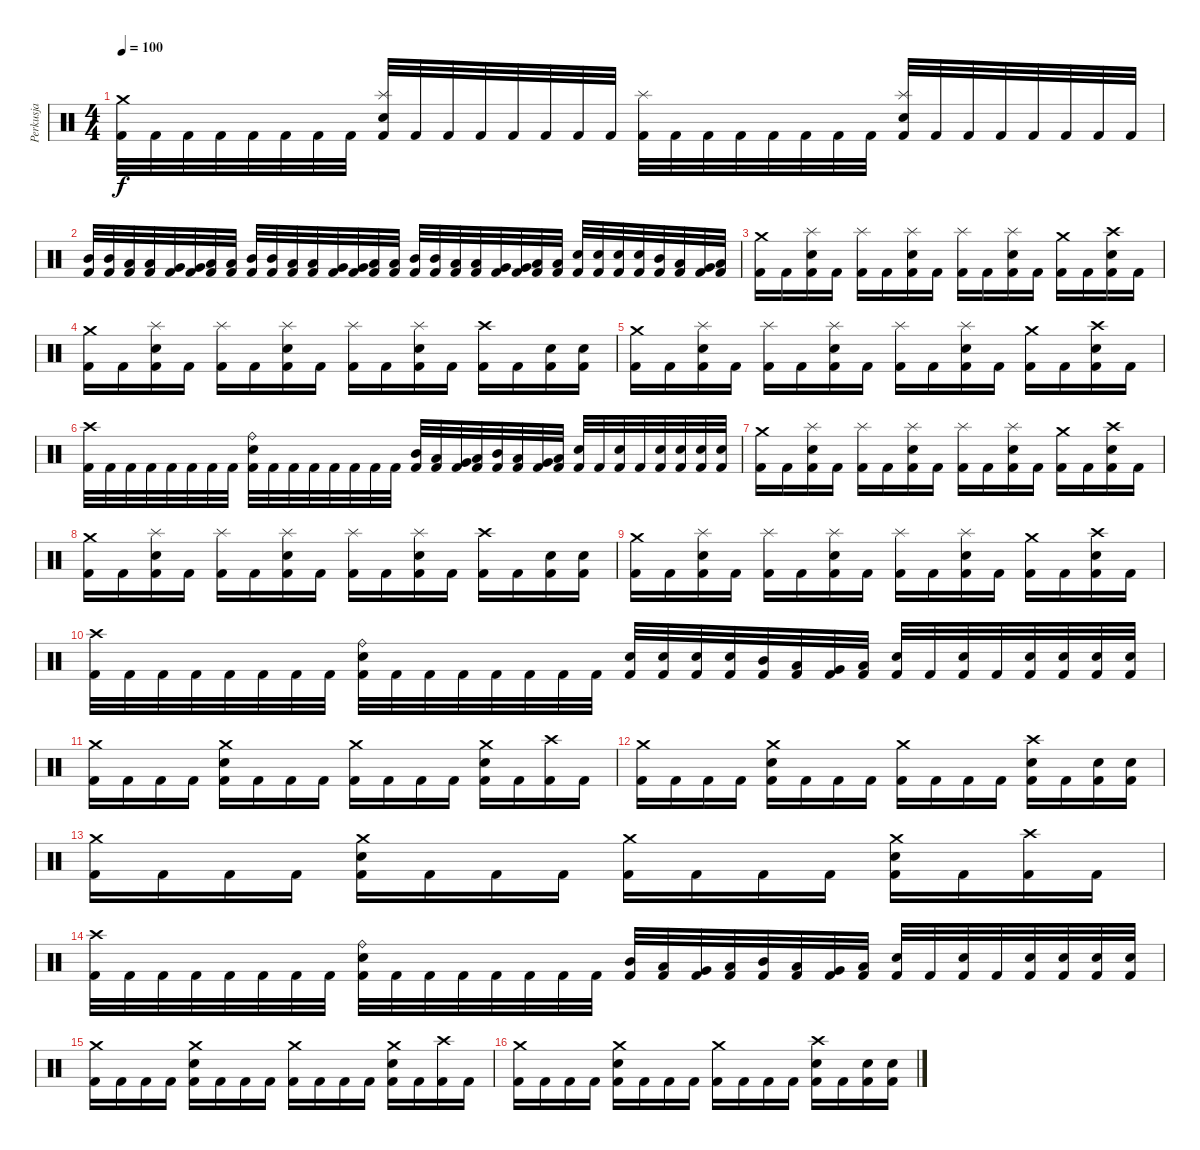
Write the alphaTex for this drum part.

\track ("Perkusja" "Perkusja") {instrument percussion}
\staff {score}
\articulation defaults
\ts (4 4)
\tempo 100
\clef neutral
\ks c
("Crash medium (hit)" "Kick (hit) 2").32{dy f} "Kick (hit) 2".32 "Kick (hit) 2".32 "Kick (hit) 2".32 "Kick (hit) 2".32 "Kick (hit) 2".32 "Kick (hit) 2".32 "Kick (hit) 2".32 ("Splash (hit)" "Electric Snare (hit)" "Kick (hit) 2").32 "Kick (hit) 2".32 "Kick (hit) 2".32 "Kick (hit) 2".32 "Kick (hit) 2".32 "Kick (hit) 2".32 "Kick (hit) 2".32 "Kick (hit) 2".32 ("Splash (hit)" "Kick (hit) 2").32 "Kick (hit) 2".32 "Kick (hit) 2".32 "Kick (hit) 2".32 "Kick (hit) 2".32 "Kick (hit) 2".32 "Kick (hit) 2".32 "Kick (hit) 2".32 ("Splash (hit)" "Electric Snare (hit)" "Kick (hit) 2").32 "Kick (hit) 2".32 "Kick (hit) 2".32 "Kick (hit) 2".32 "Kick (hit) 2".32 "Kick (hit) 2".32 "Kick (hit) 2".32 "Kick (hit) 2".32 |
("Mid Tom (hit)" "Kick (hit) 2").32 ("Mid Tom (hit)" "Kick (hit) 2").32 ("Low Tom (hit)" "Kick (hit) 2").32 ("Low Tom (hit)" "Kick (hit) 2").32 ("Very Low Tom (hit)" "Kick (hit) 2").32 ("Very Low Tom (hit)" "Kick (hit) 2").32 ("Low Floor Tom (hit)" "Kick (hit) 2").32 ("Low Floor Tom (hit)" "Kick (hit) 2").32 ("Mid Tom (hit)" "Kick (hit) 2").32 ("Mid Tom (hit)" "Kick (hit) 2").32 ("Low Tom (hit)" "Kick (hit) 2").32 ("Low Tom (hit)" "Kick (hit) 2").32 ("Very Low Tom (hit)" "Kick (hit) 2").32 ("Very Low Tom (hit)" "Kick (hit) 2").32 ("Low Floor Tom (hit)" "Kick (hit) 2").32 ("Low Floor Tom (hit)" "Kick (hit) 2").32 ("Mid Tom (hit)" "Kick (hit) 2").32 ("Mid Tom (hit)" "Kick (hit) 2").32 ("Low Tom (hit)" "Kick (hit) 2").32 ("Low Tom (hit)" "Kick (hit) 2").32 ("Very Low Tom (hit)" "Kick (hit) 2").32 ("Very Low Tom (hit)" "Kick (hit) 2").32 ("Low Floor Tom (hit)" "Kick (hit) 2").32 ("Low Floor Tom (hit)" "Kick (hit) 2").32 ("Electric Snare (hit)" "Kick (hit) 2").32 ("Electric Snare (hit)" "Kick (hit) 2").32 ("Electric Snare (hit)" "Kick (hit) 2").32 ("Electric Snare (hit)" "Kick (hit) 2").32 ("Mid Tom (hit)" "Kick (hit) 2").32 ("Low Tom (hit)" "Kick (hit) 2").32 ("Very Low Tom (hit)" "Kick (hit) 2").32 ("Low Floor Tom (hit)" "Kick (hit) 2").32 |
("Crash medium (hit)" "Kick (hit) 2").16 "Kick (hit) 2".16 ("Splash (hit)" "Electric Snare (hit)" "Kick (hit) 2").16 "Kick (hit) 2".16 ("Splash (hit)" "Kick (hit) 2").16 "Kick (hit) 2".16 ("Splash (hit)" "Electric Snare (hit)" "Kick (hit) 2").16 "Kick (hit) 2".16 ("Splash (hit)" "Kick (hit) 2").16 "Kick (hit) 2".16 ("Splash (hit)" "Electric Snare (hit)" "Kick (hit) 2").16 "Kick (hit) 2".16 ("Crash medium (hit)" "Kick (hit) 2").16 "Kick (hit) 2".16 ("Crash high (hit)" "Electric Snare (hit)" "Kick (hit) 2").16 "Kick (hit) 2".16 |
("Crash medium (hit)" "Kick (hit) 2").16 "Kick (hit) 2".16 ("Splash (hit)" "Electric Snare (hit)" "Kick (hit) 2").16 "Kick (hit) 2".16 ("Splash (hit)" "Kick (hit) 2").16 "Kick (hit) 2".16 ("Splash (hit)" "Electric Snare (hit)" "Kick (hit) 2").16 "Kick (hit) 2".16 ("Splash (hit)" "Kick (hit) 2").16 "Kick (hit) 2".16 ("Splash (hit)" "Electric Snare (hit)" "Kick (hit) 2").16 "Kick (hit) 2".16 ("Crash high (hit)" "Kick (hit) 2").16 "Kick (hit) 2".16 ("Electric Snare (hit)" "Kick (hit) 2").16 ("Electric Snare (hit)" "Kick (hit) 2").16 |
("Crash medium (hit)" "Kick (hit) 2").16 "Kick (hit) 2".16 ("Splash (hit)" "Electric Snare (hit)" "Kick (hit) 2").16 "Kick (hit) 2".16 ("Splash (hit)" "Kick (hit) 2").16 "Kick (hit) 2".16 ("Splash (hit)" "Electric Snare (hit)" "Kick (hit) 2").16 "Kick (hit) 2".16 ("Splash (hit)" "Kick (hit) 2").16 "Kick (hit) 2".16 ("Splash (hit)" "Electric Snare (hit)" "Kick (hit) 2").16 "Kick (hit) 2".16 ("Crash medium (hit)" "Kick (hit) 2").16 "Kick (hit) 2".16 ("Crash high (hit)" "Electric Snare (hit)" "Kick (hit) 2").16 "Kick (hit) 2".16 |
("Crash high (hit)" "Kick (hit) 2").32 "Kick (hit) 2".32 "Kick (hit) 2".32 "Kick (hit) 2".32 "Kick (hit) 2".32 "Kick (hit) 2".32 "Kick (hit) 2".32 "Kick (hit) 2".32 ("Ride (bell)" "Electric Snare (hit)" "Kick (hit) 2").32 "Kick (hit) 2".32 "Kick (hit) 2".32 "Kick (hit) 2".32 "Kick (hit) 2".32 "Kick (hit) 2".32 "Kick (hit) 2".32 "Kick (hit) 2".32 ("Mid Tom (hit)" "Kick (hit) 2").32 ("Low Tom (hit)" "Kick (hit) 2").32 ("Very Low Tom (hit)" "Kick (hit) 2").32 ("Low Floor Tom (hit)" "Kick (hit) 2").32 ("Mid Tom (hit)" "Kick (hit) 2").32 ("Low Tom (hit)" "Kick (hit) 2").32 ("Very Low Tom (hit)" "Kick (hit) 2").32 ("Low Floor Tom (hit)" "Kick (hit) 2").32 ("Electric Snare (hit)" "Kick (hit) 2").32 "Kick (hit) 2".32 ("Electric Snare (hit)" "Kick (hit) 2").32 "Kick (hit) 2".32 ("Electric Snare (hit)" "Kick (hit) 2").32 ("Electric Snare (hit)" "Kick (hit) 2").32 ("Electric Snare (hit)" "Kick (hit) 2").32 ("Electric Snare (hit)" "Kick (hit) 2").32 |
("Crash medium (hit)" "Kick (hit) 2").16 "Kick (hit) 2".16 ("Splash (hit)" "Electric Snare (hit)" "Kick (hit) 2").16 "Kick (hit) 2".16 ("Splash (hit)" "Kick (hit) 2").16 "Kick (hit) 2".16 ("Splash (hit)" "Electric Snare (hit)" "Kick (hit) 2").16 "Kick (hit) 2".16 ("Splash (hit)" "Kick (hit) 2").16 "Kick (hit) 2".16 ("Splash (hit)" "Electric Snare (hit)" "Kick (hit) 2").16 "Kick (hit) 2".16 ("Crash medium (hit)" "Kick (hit) 2").16 "Kick (hit) 2".16 ("Crash high (hit)" "Electric Snare (hit)" "Kick (hit) 2").16 "Kick (hit) 2".16 |
("Crash medium (hit)" "Kick (hit) 2").16 "Kick (hit) 2".16 ("Splash (hit)" "Electric Snare (hit)" "Kick (hit) 2").16 "Kick (hit) 2".16 ("Splash (hit)" "Kick (hit) 2").16 "Kick (hit) 2".16 ("Splash (hit)" "Electric Snare (hit)" "Kick (hit) 2").16 "Kick (hit) 2".16 ("Splash (hit)" "Kick (hit) 2").16 "Kick (hit) 2".16 ("Splash (hit)" "Electric Snare (hit)" "Kick (hit) 2").16 "Kick (hit) 2".16 ("Crash high (hit)" "Kick (hit) 2").16 "Kick (hit) 2".16 ("Electric Snare (hit)" "Kick (hit) 2").16 ("Electric Snare (hit)" "Kick (hit) 2").16 |
("Crash medium (hit)" "Kick (hit) 2").16 "Kick (hit) 2".16 ("Splash (hit)" "Electric Snare (hit)" "Kick (hit) 2").16 "Kick (hit) 2".16 ("Splash (hit)" "Kick (hit) 2").16 "Kick (hit) 2".16 ("Splash (hit)" "Electric Snare (hit)" "Kick (hit) 2").16 "Kick (hit) 2".16 ("Splash (hit)" "Kick (hit) 2").16 "Kick (hit) 2".16 ("Splash (hit)" "Electric Snare (hit)" "Kick (hit) 2").16 "Kick (hit) 2".16 ("Crash medium (hit)" "Kick (hit) 2").16 "Kick (hit) 2".16 ("Crash high (hit)" "Electric Snare (hit)" "Kick (hit) 2").16 "Kick (hit) 2".16 |
("Crash high (hit)" "Kick (hit) 2").32 "Kick (hit) 2".32 "Kick (hit) 2".32 "Kick (hit) 2".32 "Kick (hit) 2".32 "Kick (hit) 2".32 "Kick (hit) 2".32 "Kick (hit) 2".32 ("Ride (bell)" "Electric Snare (hit)" "Kick (hit) 2").32 "Kick (hit) 2".32 "Kick (hit) 2".32 "Kick (hit) 2".32 "Kick (hit) 2".32 "Kick (hit) 2".32 "Kick (hit) 2".32 "Kick (hit) 2".32 ("Electric Snare (hit)" "Kick (hit) 2").32 ("Electric Snare (hit)" "Kick (hit) 2").32 ("Electric Snare (hit)" "Kick (hit) 2").32 ("Electric Snare (hit)" "Kick (hit) 2").32 ("Mid Tom (hit)" "Kick (hit) 2").32 ("Low Tom (hit)" "Kick (hit) 2").32 ("Very Low Tom (hit)" "Kick (hit) 2").32 ("Low Floor Tom (hit)" "Kick (hit) 2").32 ("Electric Snare (hit)" "Kick (hit) 2").32 "Kick (hit) 2".32 ("Electric Snare (hit)" "Kick (hit) 2").32 "Kick (hit) 2".32 ("Electric Snare (hit)" "Kick (hit) 2").32 ("Electric Snare (hit)" "Kick (hit) 2").32 ("Electric Snare (hit)" "Kick (hit) 2").32 ("Electric Snare (hit)" "Kick (hit) 2").32 |
("Crash medium (hit)" "Kick (hit) 2").16 "Kick (hit) 2".16 "Kick (hit) 2".16 "Kick (hit) 2".16 ("Crash medium (hit)" "Electric Snare (hit)" "Kick (hit) 2").16 "Kick (hit) 2".16 "Kick (hit) 2".16 "Kick (hit) 2".16 ("Crash medium (hit)" "Kick (hit) 2").16 "Kick (hit) 2".16 "Kick (hit) 2".16 "Kick (hit) 2".16 ("Crash medium (hit)" "Electric Snare (hit)" "Kick (hit) 2").16 "Kick (hit) 2".16 ("Crash high (hit)" "Kick (hit) 2").16 "Kick (hit) 2".16 |
("Crash medium (hit)" "Kick (hit) 2").16 "Kick (hit) 2".16 "Kick (hit) 2".16 "Kick (hit) 2".16 ("Crash medium (hit)" "Electric Snare (hit)" "Kick (hit) 2").16 "Kick (hit) 2".16 "Kick (hit) 2".16 "Kick (hit) 2".16 ("Crash medium (hit)" "Kick (hit) 2").16 "Kick (hit) 2".16 "Kick (hit) 2".16 "Kick (hit) 2".16 ("Crash high (hit)" "Electric Snare (hit)" "Kick (hit) 2").16 "Kick (hit) 2".16 ("Electric Snare (hit)" "Kick (hit) 2").16 ("Electric Snare (hit)" "Kick (hit) 2").16 |
("Crash medium (hit)" "Kick (hit) 2").16 "Kick (hit) 2".16 "Kick (hit) 2".16 "Kick (hit) 2".16 ("Crash medium (hit)" "Electric Snare (hit)" "Kick (hit) 2").16 "Kick (hit) 2".16 "Kick (hit) 2".16 "Kick (hit) 2".16 ("Crash medium (hit)" "Kick (hit) 2").16 "Kick (hit) 2".16 "Kick (hit) 2".16 "Kick (hit) 2".16 ("Crash medium (hit)" "Electric Snare (hit)" "Kick (hit) 2").16 "Kick (hit) 2".16 ("Crash high (hit)" "Kick (hit) 2").16 "Kick (hit) 2".16 |
("Crash high (hit)" "Kick (hit) 2").32 "Kick (hit) 2".32 "Kick (hit) 2".32 "Kick (hit) 2".32 "Kick (hit) 2".32 "Kick (hit) 2".32 "Kick (hit) 2".32 "Kick (hit) 2".32 ("Ride (bell)" "Electric Snare (hit)" "Kick (hit) 2").32 "Kick (hit) 2".32 "Kick (hit) 2".32 "Kick (hit) 2".32 "Kick (hit) 2".32 "Kick (hit) 2".32 "Kick (hit) 2".32 "Kick (hit) 2".32 ("Mid Tom (hit)" "Kick (hit) 2").32 ("Low Tom (hit)" "Kick (hit) 2").32 ("Very Low Tom (hit)" "Kick (hit) 2").32 ("Low Floor Tom (hit)" "Kick (hit) 2").32 ("Mid Tom (hit)" "Kick (hit) 2").32 ("Low Tom (hit)" "Kick (hit) 2").32 ("Very Low Tom (hit)" "Kick (hit) 2").32 ("Low Floor Tom (hit)" "Kick (hit) 2").32 ("Electric Snare (hit)" "Kick (hit) 2").32 "Kick (hit) 2".32 ("Electric Snare (hit)" "Kick (hit) 2").32 "Kick (hit) 2".32 ("Electric Snare (hit)" "Kick (hit) 2").32 ("Electric Snare (hit)" "Kick (hit) 2").32 ("Electric Snare (hit)" "Kick (hit) 2").32 ("Electric Snare (hit)" "Kick (hit) 2").32 |
("Crash medium (hit)" "Kick (hit) 2").16 "Kick (hit) 2".16 "Kick (hit) 2".16 "Kick (hit) 2".16 ("Crash medium (hit)" "Electric Snare (hit)" "Kick (hit) 2").16 "Kick (hit) 2".16 "Kick (hit) 2".16 "Kick (hit) 2".16 ("Crash medium (hit)" "Kick (hit) 2").16 "Kick (hit) 2".16 "Kick (hit) 2".16 "Kick (hit) 2".16 ("Crash medium (hit)" "Electric Snare (hit)" "Kick (hit) 2").16 "Kick (hit) 2".16 ("Crash high (hit)" "Kick (hit) 2").16 "Kick (hit) 2".16 |
("Crash medium (hit)" "Kick (hit) 2").16 "Kick (hit) 2".16 "Kick (hit) 2".16 "Kick (hit) 2".16 ("Crash medium (hit)" "Electric Snare (hit)" "Kick (hit) 2").16 "Kick (hit) 2".16 "Kick (hit) 2".16 "Kick (hit) 2".16 ("Crash medium (hit)" "Kick (hit) 2").16 "Kick (hit) 2".16 "Kick (hit) 2".16 "Kick (hit) 2".16 ("Crash high (hit)" "Electric Snare (hit)" "Kick (hit) 2").16 "Kick (hit) 2".16 ("Electric Snare (hit)" "Kick (hit) 2").16 ("Electric Snare (hit)" "Kick (hit) 2").16
